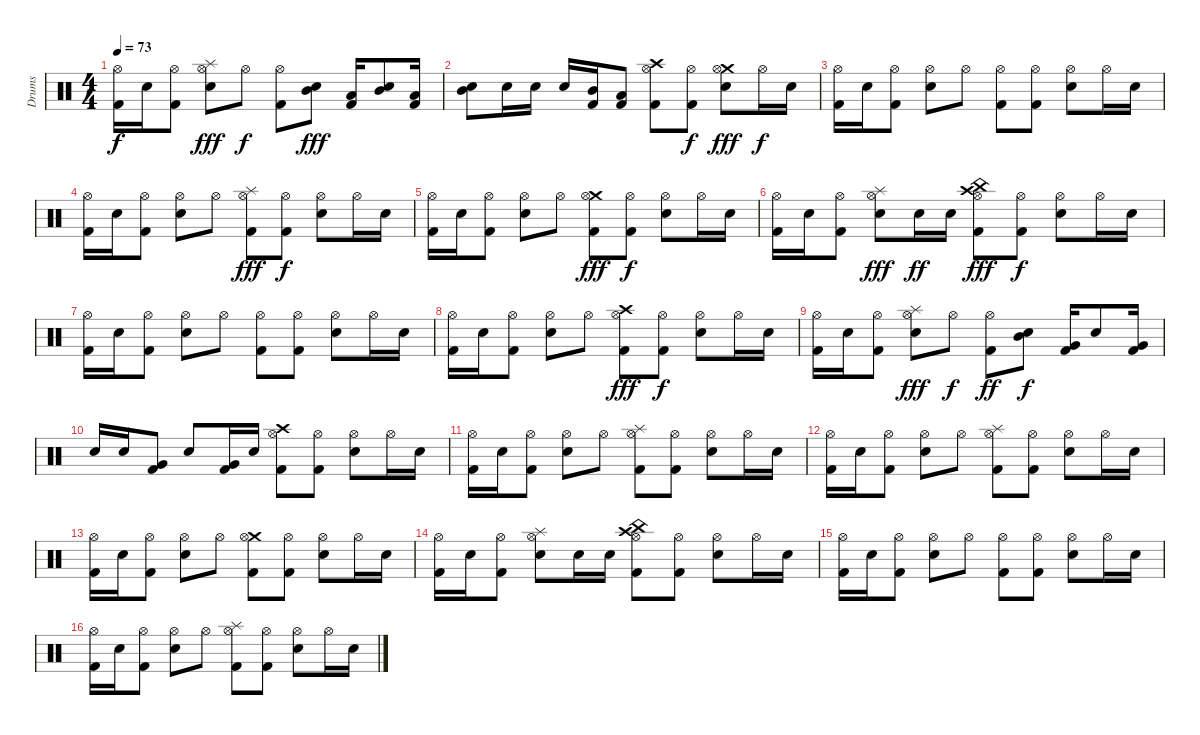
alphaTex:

\track ("Drums" "Drums") {instrument percussion}
\staff {score}
\articulation defaults
\ts (4 4)
\tempo 73
\clef neutral
\ks c
("Hi-Hat (open)" "Kick (hit) 2").16{dy f} "Electric Snare (hit)".16 ("Hi-Hat (open)" "Kick (hit) 2").8 ("Splash (hit)" "Hi-Hat (open)" "Electric Snare (hit)").8{dy fff} "Hi-Hat (open)".8{dy f} ("Hi-Hat (open)" "Kick (hit) 2").8 ("Mid Tom (hit)" "Electric Snare (hit)").8{dy fff} ("Low Tom (hit)" "Kick (hit) 2").16 ("Mid Tom (hit)" "Electric Snare (hit)").8 ("Low Tom (hit)" "Kick (hit) 2").16 |
("Mid Tom (hit)" "Electric Snare (hit)").8 "Electric Snare (hit)".16 "Electric Snare (hit)".16 "Electric Snare (hit)".16 ("Mid Tom (hit)" "Kick (hit) 2").16 ("Low Tom (hit)" "Kick (hit) 2").8 ("Crash high (hit)" "Hi-Hat (open)" "Kick (hit) 2").8 ("Hi-Hat (open)" "Kick (hit) 2").8{dy f} ("Crash medium (hit)" "Hi-Hat (open)" "Electric Snare (hit)").8{dy fff} "Hi-Hat (open)".16{dy f} "Electric Snare (hit)".16 |
("Hi-Hat (open)" "Kick (hit) 2").16 "Electric Snare (hit)".16 ("Hi-Hat (open)" "Kick (hit) 2").8 ("Hi-Hat (open)" "Electric Snare (hit)").8 "Hi-Hat (open)".8 ("Hi-Hat (open)" "Kick (hit) 2").8 ("Hi-Hat (open)" "Kick (hit) 2").8 ("Hi-Hat (open)" "Electric Snare (hit)").8 "Hi-Hat (open)".16 "Electric Snare (hit)".16 |
("Hi-Hat (open)" "Kick (hit) 2").16 "Electric Snare (hit)".16 ("Hi-Hat (open)" "Kick (hit) 2").8 ("Hi-Hat (open)" "Electric Snare (hit)").8 "Hi-Hat (open)".8 ("Splash (hit)" "Hi-Hat (open)" "Kick (hit) 2").8{dy fff} ("Hi-Hat (open)" "Kick (hit) 2").8{dy f} ("Hi-Hat (open)" "Electric Snare (hit)").8 "Hi-Hat (open)".16 "Electric Snare (hit)".16 |
("Hi-Hat (open)" "Kick (hit) 2").16 "Electric Snare (hit)".16 ("Hi-Hat (open)" "Kick (hit) 2").8 ("Hi-Hat (open)" "Electric Snare (hit)").8 "Hi-Hat (open)".8 ("Crash medium (hit)" "Hi-Hat (open)" "Kick (hit) 2").8{dy fff} ("Hi-Hat (open)" "Kick (hit) 2").8{dy f} ("Hi-Hat (open)" "Electric Snare (hit)").8 "Hi-Hat (open)".16 "Electric Snare (hit)".16 |
("Hi-Hat (open)" "Kick (hit) 2").16 "Electric Snare (hit)".16 ("Hi-Hat (open)" "Kick (hit) 2").8 ("Splash (hit)" "Hi-Hat (open)" "Electric Snare (hit)").8{dy fff} "Electric Snare (hit)".16{dy ff} "Electric Snare (hit)".16 ("Crash high (hit)" "Hi-Hat (open)" "China (hit)" "Kick (hit) 2").8{dy fff} ("Hi-Hat (open)" "Kick (hit) 2").8{dy f} ("Hi-Hat (open)" "Electric Snare (hit)").8 "Hi-Hat (open)".16 "Electric Snare (hit)".16 |
("Hi-Hat (open)" "Kick (hit) 2").16 "Electric Snare (hit)".16 ("Hi-Hat (open)" "Kick (hit) 2").8 ("Hi-Hat (open)" "Electric Snare (hit)").8 "Hi-Hat (open)".8 ("Hi-Hat (open)" "Kick (hit) 2").8 ("Hi-Hat (open)" "Kick (hit) 2").8 ("Hi-Hat (open)" "Electric Snare (hit)").8 "Hi-Hat (open)".16 "Electric Snare (hit)".16 |
("Hi-Hat (open)" "Kick (hit) 2").16 "Electric Snare (hit)".16 ("Hi-Hat (open)" "Kick (hit) 2").8 ("Hi-Hat (open)" "Electric Snare (hit)").8 "Hi-Hat (open)".8 ("Crash high (hit)" "Hi-Hat (open)" "Kick (hit) 2").8{dy fff} ("Hi-Hat (open)" "Kick (hit) 2").8{dy f} ("Hi-Hat (open)" "Electric Snare (hit)").8 "Hi-Hat (open)".16 "Electric Snare (hit)".16 |
("Hi-Hat (open)" "Kick (hit) 2").16 "Electric Snare (hit)".16 ("Hi-Hat (open)" "Kick (hit) 2").8 ("Splash (hit)" "Hi-Hat (open)" "Electric Snare (hit)").8{dy fff} "Hi-Hat (open)".8{dy f} ("Hi-Hat (open)" "Kick (hit) 2").8{dy ff} ("Mid Tom (hit)" "Electric Snare (hit)").8{dy f} ("Very Low Tom (hit)" "Kick (hit) 2").16 "Electric Snare (hit)".8 ("Very Low Tom (hit)" "Kick (hit) 2").16 |
"Electric Snare (hit)".16 "Electric Snare (hit)".16 ("Very Low Tom (hit)" "Kick (hit) 2").8 "Electric Snare (hit)".8 ("Very Low Tom (hit)" "Kick (hit) 2").16 "Electric Snare (hit)".16 ("Crash high (hit)" "Hi-Hat (open)" "Kick (hit) 2").8 ("Hi-Hat (open)" "Kick (hit) 2").8 ("Hi-Hat (open)" "Electric Snare (hit)").8 "Hi-Hat (open)".16 "Electric Snare (hit)".16 |
("Hi-Hat (open)" "Kick (hit) 2").16 "Electric Snare (hit)".16 ("Hi-Hat (open)" "Kick (hit) 2").8 ("Hi-Hat (open)" "Electric Snare (hit)").8 "Hi-Hat (open)".8 ("Splash (hit)" "Hi-Hat (open)" "Kick (hit) 2").8 ("Hi-Hat (open)" "Kick (hit) 2").8 ("Hi-Hat (open)" "Electric Snare (hit)").8 "Hi-Hat (open)".16 "Electric Snare (hit)".16 |
("Hi-Hat (open)" "Kick (hit) 2").16 "Electric Snare (hit)".16 ("Hi-Hat (open)" "Kick (hit) 2").8 ("Hi-Hat (open)" "Electric Snare (hit)").8 "Hi-Hat (open)".8 ("Splash (hit)" "Hi-Hat (open)" "Kick (hit) 2").8 ("Hi-Hat (open)" "Kick (hit) 2").8 ("Hi-Hat (open)" "Electric Snare (hit)").8 "Hi-Hat (open)".16 "Electric Snare (hit)".16 |
("Hi-Hat (open)" "Kick (hit) 2").16 "Electric Snare (hit)".16 ("Hi-Hat (open)" "Kick (hit) 2").8 ("Hi-Hat (open)" "Electric Snare (hit)").8 "Hi-Hat (open)".8 ("Crash medium (hit)" "Hi-Hat (open)" "Kick (hit) 2").8 ("Hi-Hat (open)" "Kick (hit) 2").8 ("Hi-Hat (open)" "Electric Snare (hit)").8 "Hi-Hat (open)".16 "Electric Snare (hit)".16 |
("Hi-Hat (open)" "Kick (hit) 2").16 "Electric Snare (hit)".16 ("Hi-Hat (open)" "Kick (hit) 2").8 ("Splash (hit)" "Hi-Hat (open)" "Electric Snare (hit)").8 "Electric Snare (hit)".16 "Electric Snare (hit)".16 ("Crash high (hit)" "Hi-Hat (open)" "China (hit)" "Kick (hit) 2").8 ("Hi-Hat (open)" "Kick (hit) 2").8 ("Hi-Hat (open)" "Electric Snare (hit)").8 "Hi-Hat (open)".16 "Electric Snare (hit)".16 |
("Hi-Hat (open)" "Kick (hit) 2").16 "Electric Snare (hit)".16 ("Hi-Hat (open)" "Kick (hit) 2").8 ("Hi-Hat (open)" "Electric Snare (hit)").8 "Hi-Hat (open)".8 ("Hi-Hat (open)" "Kick (hit) 2").8 ("Hi-Hat (open)" "Kick (hit) 2").8 ("Hi-Hat (open)" "Electric Snare (hit)").8 "Hi-Hat (open)".16 "Electric Snare (hit)".16 |
("Hi-Hat (open)" "Kick (hit) 2").16 "Electric Snare (hit)".16 ("Hi-Hat (open)" "Kick (hit) 2").8 ("Hi-Hat (open)" "Electric Snare (hit)").8 "Hi-Hat (open)".8 ("Splash (hit)" "Hi-Hat (open)" "Kick (hit) 2").8 ("Hi-Hat (open)" "Kick (hit) 2").8 ("Hi-Hat (open)" "Electric Snare (hit)").8 "Hi-Hat (open)".16 "Electric Snare (hit)".16
